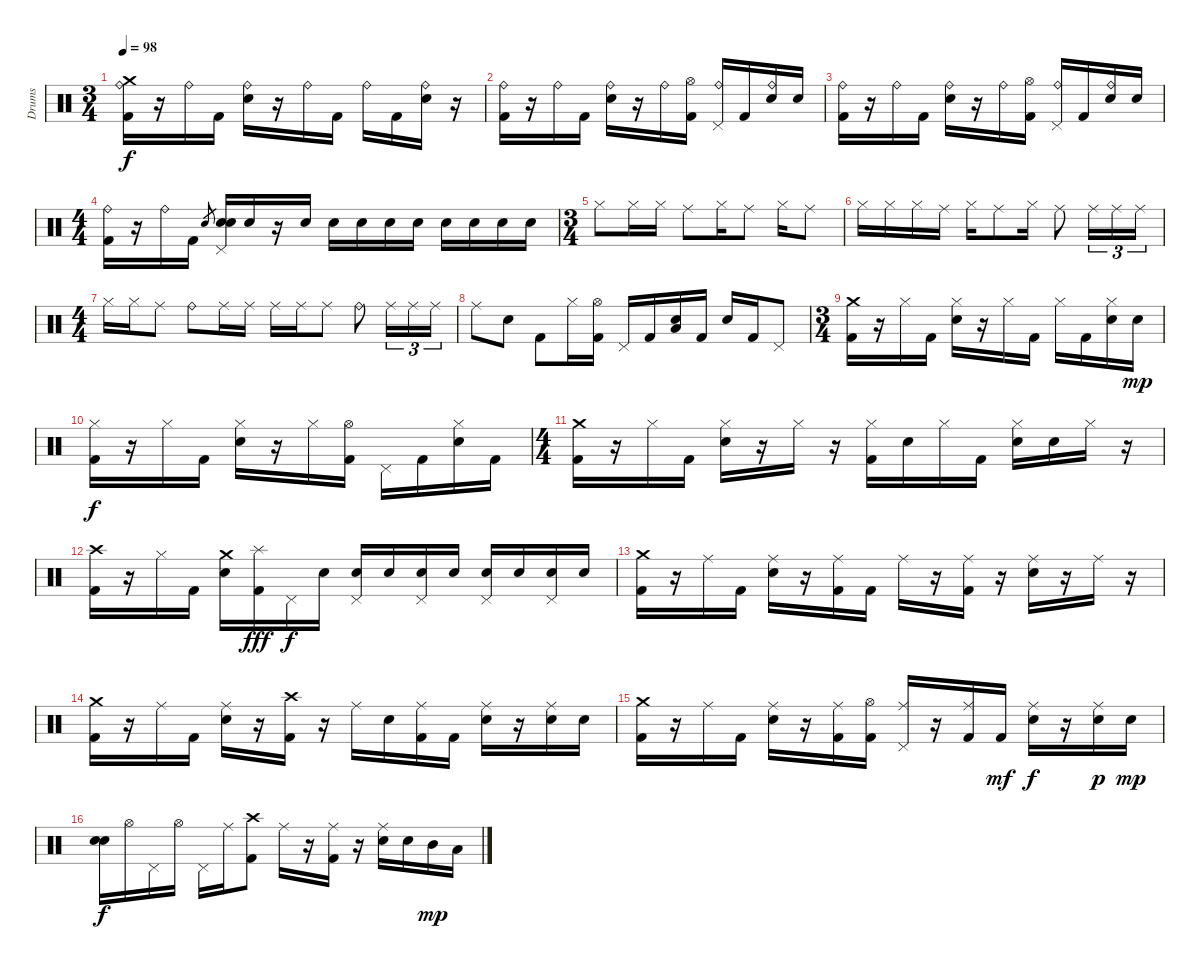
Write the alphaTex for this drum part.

\track ("Drums" "Drums") {instrument percussion}
\staff {score}
\articulation defaults
\ts (3 4)
\tempo 98
\clef neutral
\ks c
("Ride (bell)" "Crash medium (hit)" "Kick (hit) 2").16{dy f} r.16 "Ride (bell)".16 "Kick (hit) 2".16 ("Ride (bell)" "Snare (hit) 2").16 r.16 "Ride (bell)".16 "Kick (hit) 2".16 "Ride (bell)".16 "Kick (hit) 2".16 ("Ride (bell)" "Snare (hit) 2").16 r.16 |
("Ride (bell)" "Kick (hit) 2").16 r.16 "Ride (bell)".16 "Kick (hit) 2".16 ("Ride (bell)" "Snare (hit) 2").16 r.16 "Ride (bell)".16 ("Hi-Hat (open)" "Kick (hit) 2").16 ("Ride (bell)" "Pedal Hi-Hat (hit)").16 "Kick (hit) 2".16 ("Ride (bell)" "Snare (hit) 2").16 "Snare (hit) 2".16 |
("Ride (bell)" "Kick (hit) 2").16 r.16 "Ride (bell)".16 "Kick (hit) 2".16 ("Ride (bell)" "Snare (hit) 2").16 r.16 "Ride (bell)".16 ("Hi-Hat (open)" "Kick (hit) 2").16 ("Ride (bell)" "Pedal Hi-Hat (hit)").16 "Kick (hit) 2".16 ("Ride (bell)" "Snare (hit) 2").16 "Snare (hit) 2".16 |
\ts (4 4)
("Ride (bell)" "Kick (hit) 2").16 r.16 "Ride (bell)".16 "Kick (hit) 2".16 "Snare (hit) 2".8{gr} ("Pedal Hi-Hat (hit)" "Snare (hit) 2" "Snare (hit) 2").16 "Snare (hit) 2".16 r.16 "Snare (hit) 2".16 "Snare (hit) 2".16 "Snare (hit) 2".16 "Snare (hit) 2".16 "Snare (hit) 2".16 "Snare (hit) 2".16 "Snare (hit) 2".16 "Snare (hit) 2".16 "Snare (hit) 2".16 |
\ts (3 4)
"Hi-Hat (closed)".8 "Hi-Hat (closed)".16 "Hi-Hat (closed)".16 "Ride (middle)".8 "Hi-Hat (closed)".16 "Ride (middle)".8 "Hi-Hat (closed)".16 "Ride (middle)".8 |
"Hi-Hat (closed)".16 "Hi-Hat (closed)".16 "Hi-Hat (closed)".16 "Ride (middle)".16 "Hi-Hat (closed)".16 "Ride (middle)".8 "Hi-Hat (closed)".16 "Ride (middle)".8 "Ride (middle)".16{tu (3 2)} "Ride (middle)".16{tu (3 2)} "Ride (middle)".16{tu (3 2)} |
\ts (4 4)
"Hi-Hat (closed)".16 "Hi-Hat (closed)".16 "Ride (middle)".8 "Ride (bell)".8 "Ride (middle)".16 "Ride (middle)".16 "Ride (middle)".16 "Ride (middle)".16 "Ride (middle)".8 "Ride (bell)".8 "Ride (middle)".16{tu (3 2)} "Ride (middle)".16{tu (3 2)} "Ride (middle)".16{tu (3 2)} |
"Ride (middle)".8 "Snare (hit) 2".8 "Kick (hit) 2".8 "Hi-Hat (closed)".16 ("Hi-Hat (open)" "Kick (hit) 2").16 "Pedal Hi-Hat (hit)".16 "Kick (hit) 2".16 ("Low Tom (hit)" "Snare (hit) 2").16 "Kick (hit) 2".16 "Snare (hit) 2".16 "Kick (hit) 2".16 "Pedal Hi-Hat (hit)".8 |
\ts (3 4)
("Crash medium (hit)" "Kick (hit) 2").16 r.16 "Hi-Hat (closed)".16 "Kick (hit) 2".16 ("Hi-Hat (closed)" "Snare (hit) 2").16 r.16 "Hi-Hat (closed)".16 "Kick (hit) 2".16 "Hi-Hat (closed)".16 "Kick (hit) 2".16 ("Hi-Hat (closed)" "Snare (hit) 2").16 "Snare (hit) 2".16{dy mp} |
("Hi-Hat (closed)" "Kick (hit) 2").16{dy f} r.16 "Hi-Hat (closed)".16 "Kick (hit) 2".16 ("Hi-Hat (closed)" "Snare (hit) 2").16 r.16 "Hi-Hat (closed)".16 ("Hi-Hat (open)" "Kick (hit) 2").16 "Pedal Hi-Hat (hit)".16 "Kick (hit) 2".16 ("Hi-Hat (closed)" "Snare (hit) 2").16 "Kick (hit) 2".16 |
\ts (4 4)
("Crash medium (hit)" "Kick (hit) 2").16 r.16 "Hi-Hat (closed)".16 "Kick (hit) 2".16 ("Hi-Hat (closed)" "Snare (hit) 2").16 r.16 "Hi-Hat (closed)".16 r.16 ("Hi-Hat (closed)" "Kick (hit) 2").16 "Snare (hit) 2".16 "Hi-Hat (closed)".16 "Kick (hit) 2".16 ("Hi-Hat (closed)" "Snare (hit) 2").16 "Snare (hit) 2".16 "Hi-Hat (closed)".16 r.16 |
("Crash high (hit)" "Kick (hit) 2").16 r.16 "Hi-Hat (closed)".16 "Kick (hit) 2".16 ("Crash medium (hit)" "Snare (hit) 2").16 ("Splash (hit)" "Kick (hit) 2").16{dy fff} "Pedal Hi-Hat (hit)".16{dy f} "Snare (hit) 2".16 ("Pedal Hi-Hat (hit)" "Snare (hit) 2").16 "Snare (hit) 2".16 ("Pedal Hi-Hat (hit)" "Snare (hit) 2").16 "Snare (hit) 2".16 ("Pedal Hi-Hat (hit)" "Snare (hit) 2").16 "Snare (hit) 2".16 ("Pedal Hi-Hat (hit)" "Snare (hit) 2").16 "Snare (hit) 2".16 |
("Crash medium (hit)" "Kick (hit) 2").16 r.16 "Ride (middle)".16 "Kick (hit) 2".16 ("Ride (middle)" "Snare (hit) 2").16 r.16 ("Ride (middle)" "Kick (hit) 2").16 "Kick (hit) 2".16 "Ride (middle)".16 r.16 ("Ride (middle)" "Kick (hit) 2").16 r.16 ("Ride (middle)" "Snare (hit) 2").16 r.16 "Ride (middle)".16 r.16 |
("Crash medium (hit)" "Kick (hit) 2").16 r.16 "Ride (middle)".16 "Kick (hit) 2".16 ("Ride (middle)" "Snare (hit) 2").16 r.16 ("Crash high (hit)" "Kick (hit) 2").16 r.16 "Ride (middle)".16 "Snare (hit) 2".16 ("Ride (middle)" "Kick (hit) 2").16 "Kick (hit) 2".16 ("Ride (middle)" "Snare (hit) 2").16 r.16 ("Ride (middle)" "Snare (hit) 2").16 "Snare (hit) 2".16 |
("Crash medium (hit)" "Kick (hit) 2").16 r.16 "Ride (middle)".16 "Kick (hit) 2".16 ("Ride (middle)" "Snare (hit) 2").16 r.16 ("Ride (middle)" "Kick (hit) 2").16 ("Hi-Hat (open)" "Kick (hit) 2").16 ("Ride (middle)" "Pedal Hi-Hat (hit)").16 r.16 ("Ride (middle)" "Kick (hit) 2").16 "Kick (hit) 2".16{dy mf} ("Ride (middle)" "Snare (hit) 2").16{dy f} r.16 ("Ride (middle)" "Snare (hit) 2").16{dy p} "Snare (hit) 2".16{dy mp} |
("Snare (hit) 2" "Snare (hit) 2").16{dy f} "Hi-Hat (open)".16 "Pedal Hi-Hat (hit)".16 "Hi-Hat (open)".16 "Pedal Hi-Hat (hit)".16 "Ride (middle)".16 ("Crash high (hit)" "Kick (hit) 2").8 "Ride (middle)".16 r.16 ("Ride (middle)" "Kick (hit) 2").16 r.16 ("Ride (middle)" "Snare (hit) 2").16 "Snare (hit) 2".16 "Mid Tom (hit)".16{dy mp} "Low Tom (hit)".16
